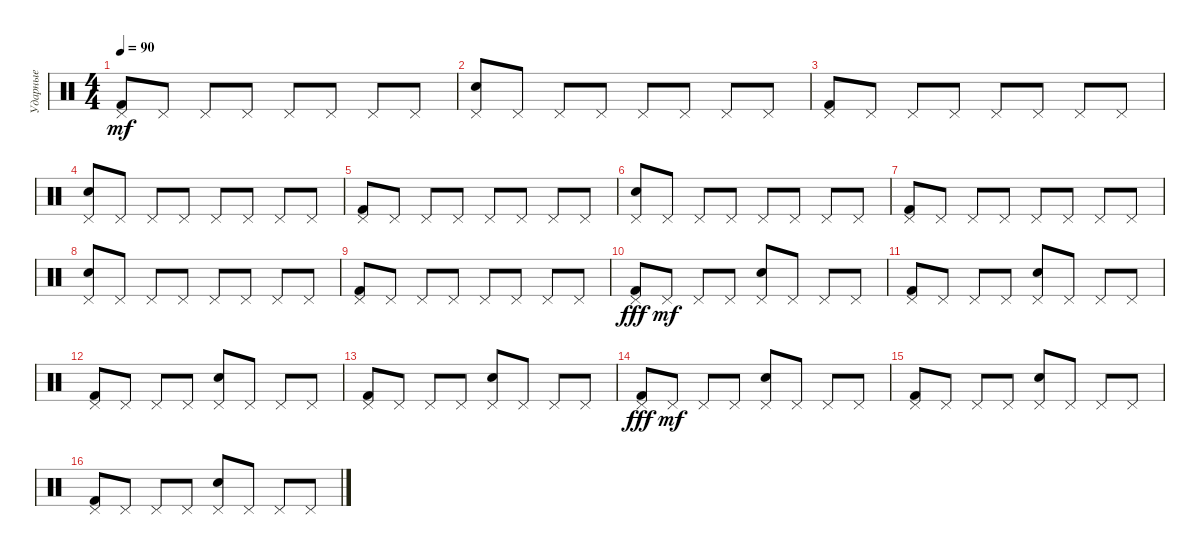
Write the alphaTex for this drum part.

\track ("Ударные" "Ударные") {instrument percussion}
\staff {score}
\articulation defaults
\ts (4 4)
\tempo 90
\clef neutral
\ks c
("Pedal Hi-Hat (hit)" "Kick (hit) 2").8{dy mf} "Pedal Hi-Hat (hit)".8 "Pedal Hi-Hat (hit)".8 "Pedal Hi-Hat (hit)".8 "Pedal Hi-Hat (hit)".8 "Pedal Hi-Hat (hit)".8 "Pedal Hi-Hat (hit)".8 "Pedal Hi-Hat (hit)".8 |
("Pedal Hi-Hat (hit)" "Snare (hit) 2").8 "Pedal Hi-Hat (hit)".8 "Pedal Hi-Hat (hit)".8 "Pedal Hi-Hat (hit)".8 "Pedal Hi-Hat (hit)".8 "Pedal Hi-Hat (hit)".8 "Pedal Hi-Hat (hit)".8 "Pedal Hi-Hat (hit)".8 |
("Pedal Hi-Hat (hit)" "Kick (hit) 2").8 "Pedal Hi-Hat (hit)".8 "Pedal Hi-Hat (hit)".8 "Pedal Hi-Hat (hit)".8 "Pedal Hi-Hat (hit)".8 "Pedal Hi-Hat (hit)".8 "Pedal Hi-Hat (hit)".8 "Pedal Hi-Hat (hit)".8 |
("Pedal Hi-Hat (hit)" "Snare (hit) 2").8 "Pedal Hi-Hat (hit)".8 "Pedal Hi-Hat (hit)".8 "Pedal Hi-Hat (hit)".8 "Pedal Hi-Hat (hit)".8 "Pedal Hi-Hat (hit)".8 "Pedal Hi-Hat (hit)".8 "Pedal Hi-Hat (hit)".8 |
("Pedal Hi-Hat (hit)" "Kick (hit) 2").8 "Pedal Hi-Hat (hit)".8 "Pedal Hi-Hat (hit)".8 "Pedal Hi-Hat (hit)".8 "Pedal Hi-Hat (hit)".8 "Pedal Hi-Hat (hit)".8 "Pedal Hi-Hat (hit)".8 "Pedal Hi-Hat (hit)".8 |
("Pedal Hi-Hat (hit)" "Snare (hit) 2").8 "Pedal Hi-Hat (hit)".8 "Pedal Hi-Hat (hit)".8 "Pedal Hi-Hat (hit)".8 "Pedal Hi-Hat (hit)".8 "Pedal Hi-Hat (hit)".8 "Pedal Hi-Hat (hit)".8 "Pedal Hi-Hat (hit)".8 |
("Pedal Hi-Hat (hit)" "Kick (hit) 2").8 "Pedal Hi-Hat (hit)".8 "Pedal Hi-Hat (hit)".8 "Pedal Hi-Hat (hit)".8 "Pedal Hi-Hat (hit)".8 "Pedal Hi-Hat (hit)".8 "Pedal Hi-Hat (hit)".8 "Pedal Hi-Hat (hit)".8 |
("Pedal Hi-Hat (hit)" "Snare (hit) 2").8 "Pedal Hi-Hat (hit)".8 "Pedal Hi-Hat (hit)".8 "Pedal Hi-Hat (hit)".8 "Pedal Hi-Hat (hit)".8 "Pedal Hi-Hat (hit)".8 "Pedal Hi-Hat (hit)".8 "Pedal Hi-Hat (hit)".8 |
("Pedal Hi-Hat (hit)" "Kick (hit) 2").8 "Pedal Hi-Hat (hit)".8 "Pedal Hi-Hat (hit)".8 "Pedal Hi-Hat (hit)".8 "Pedal Hi-Hat (hit)".8 "Pedal Hi-Hat (hit)".8 "Pedal Hi-Hat (hit)".8 "Pedal Hi-Hat (hit)".8 |
("Pedal Hi-Hat (hit)" "Kick (hit) 2").8{dy fff} "Pedal Hi-Hat (hit)".8{dy mf} "Pedal Hi-Hat (hit)".8 "Pedal Hi-Hat (hit)".8 ("Pedal Hi-Hat (hit)" "Snare (hit) 2").8 "Pedal Hi-Hat (hit)".8 "Pedal Hi-Hat (hit)".8 "Pedal Hi-Hat (hit)".8 |
("Pedal Hi-Hat (hit)" "Kick (hit) 2").8 "Pedal Hi-Hat (hit)".8 "Pedal Hi-Hat (hit)".8 "Pedal Hi-Hat (hit)".8 ("Pedal Hi-Hat (hit)" "Snare (hit) 2").8 "Pedal Hi-Hat (hit)".8 "Pedal Hi-Hat (hit)".8 "Pedal Hi-Hat (hit)".8 |
("Pedal Hi-Hat (hit)" "Kick (hit) 2").8 "Pedal Hi-Hat (hit)".8 "Pedal Hi-Hat (hit)".8 "Pedal Hi-Hat (hit)".8 ("Pedal Hi-Hat (hit)" "Snare (hit) 2").8 "Pedal Hi-Hat (hit)".8 "Pedal Hi-Hat (hit)".8 "Pedal Hi-Hat (hit)".8 |
("Pedal Hi-Hat (hit)" "Kick (hit) 2").8 "Pedal Hi-Hat (hit)".8 "Pedal Hi-Hat (hit)".8 "Pedal Hi-Hat (hit)".8 ("Pedal Hi-Hat (hit)" "Snare (hit) 2").8 "Pedal Hi-Hat (hit)".8 "Pedal Hi-Hat (hit)".8 "Pedal Hi-Hat (hit)".8 |
("Pedal Hi-Hat (hit)" "Kick (hit) 2").8{dy fff} "Pedal Hi-Hat (hit)".8{dy mf} "Pedal Hi-Hat (hit)".8 "Pedal Hi-Hat (hit)".8 ("Pedal Hi-Hat (hit)" "Snare (hit) 2").8 "Pedal Hi-Hat (hit)".8 "Pedal Hi-Hat (hit)".8 "Pedal Hi-Hat (hit)".8 |
("Pedal Hi-Hat (hit)" "Kick (hit) 2").8 "Pedal Hi-Hat (hit)".8 "Pedal Hi-Hat (hit)".8 "Pedal Hi-Hat (hit)".8 ("Pedal Hi-Hat (hit)" "Snare (hit) 2").8 "Pedal Hi-Hat (hit)".8 "Pedal Hi-Hat (hit)".8 "Pedal Hi-Hat (hit)".8 |
("Pedal Hi-Hat (hit)" "Kick (hit) 2").8 "Pedal Hi-Hat (hit)".8 "Pedal Hi-Hat (hit)".8 "Pedal Hi-Hat (hit)".8 ("Pedal Hi-Hat (hit)" "Snare (hit) 2").8 "Pedal Hi-Hat (hit)".8 "Pedal Hi-Hat (hit)".8 "Pedal Hi-Hat (hit)".8
